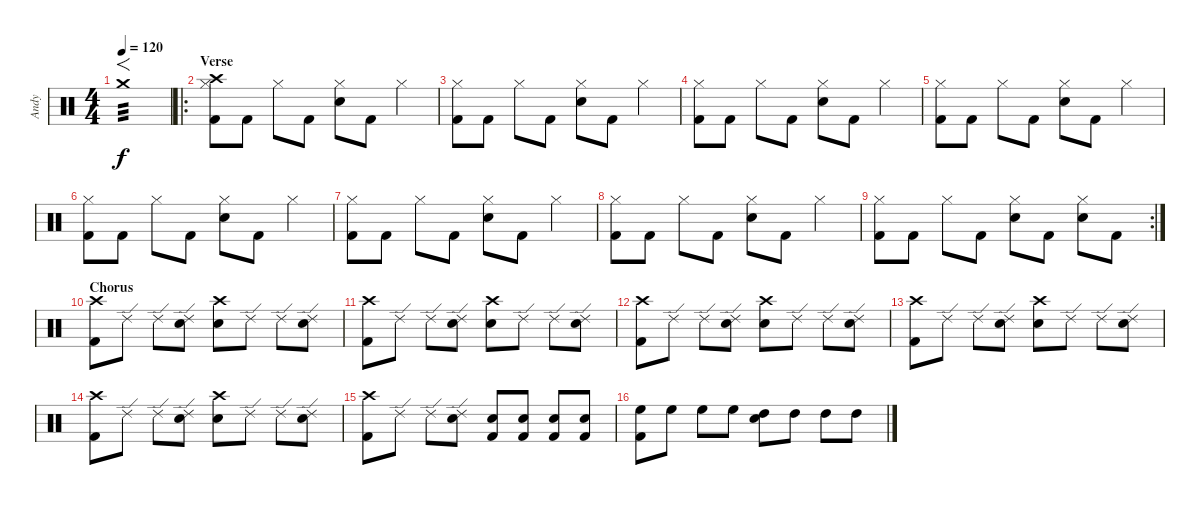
\track ("Andy" "Andy") {instrument percussion}
\staff {score}
\articulation defaults
\ts (4 4)
\tempo 120
\clef neutral
\ks c "Crash medium (hit)".1{f tp 3 dy f}
|
\ro
\section ("" "Verse")
("Crash high (hit)" "Hi-Hat (closed)" "Kick (hit) 2").8 "Kick (hit) 2".8 "Hi-Hat (closed)".8 "Kick (hit) 2".8 ("Hi-Hat (closed)" "Snare (hit) 2").8 "Kick (hit) 2".8 "Hi-Hat (closed)".4 |
("Hi-Hat (closed)" "Kick (hit) 2").8 "Kick (hit) 2".8 "Hi-Hat (closed)".8 "Kick (hit) 2".8 ("Hi-Hat (closed)" "Snare (hit) 2").8 "Kick (hit) 2".8 "Hi-Hat (closed)".4 |
("Hi-Hat (closed)" "Kick (hit) 2").8 "Kick (hit) 2".8 "Hi-Hat (closed)".8 "Kick (hit) 2".8 ("Hi-Hat (closed)" "Snare (hit) 2").8 "Kick (hit) 2".8 "Hi-Hat (closed)".4 |
("Hi-Hat (closed)" "Kick (hit) 2").8 "Kick (hit) 2".8 "Hi-Hat (closed)".8 "Kick (hit) 2".8 ("Hi-Hat (closed)" "Snare (hit) 2").8 "Kick (hit) 2".8 "Hi-Hat (closed)".4 |
("Hi-Hat (closed)" "Kick (hit) 2").8 "Kick (hit) 2".8 "Hi-Hat (closed)".8 "Kick (hit) 2".8 ("Hi-Hat (closed)" "Snare (hit) 2").8 "Kick (hit) 2".8 "Hi-Hat (closed)".4 |
("Hi-Hat (closed)" "Kick (hit) 2").8 "Kick (hit) 2".8 "Hi-Hat (closed)".8 "Kick (hit) 2".8 ("Hi-Hat (closed)" "Snare (hit) 2").8 "Kick (hit) 2".8 "Hi-Hat (closed)".4 |
("Hi-Hat (closed)" "Kick (hit) 2").8 "Kick (hit) 2".8 "Hi-Hat (closed)".8 "Kick (hit) 2".8 ("Hi-Hat (closed)" "Snare (hit) 2").8 "Kick (hit) 2".8 "Hi-Hat (closed)".4 |
\rc 2
("Hi-Hat (closed)" "Kick (hit) 2").8 "Kick (hit) 2".8 "Hi-Hat (closed)".8 "Kick (hit) 2".8 ("Hi-Hat (closed)" "Snare (hit) 2").8 "Kick (hit) 2".8 ("Hi-Hat (closed)" "Snare (hit) 2").8 "Kick (hit) 2".8 |
\section ("" "Chorus")
("Crash high (hit)" "Kick (hit) 2").8 "Ride (edge) 2".8 "Ride (edge) 2".8 ("Ride (edge) 2" "Snare (hit) 2").8 ("Crash high (hit)" "Snare (hit) 2").8 "Ride (edge) 2".8 "Ride (edge) 2".8 ("Ride (edge) 2" "Snare (hit) 2").8 |
("Crash high (hit)" "Kick (hit) 2").8 "Ride (edge) 2".8 "Ride (edge) 2".8 ("Ride (edge) 2" "Snare (hit) 2").8 ("Crash high (hit)" "Snare (hit) 2").8 "Ride (edge) 2".8 "Ride (edge) 2".8 ("Ride (edge) 2" "Snare (hit) 2").8 |
("Crash high (hit)" "Kick (hit) 2").8 "Ride (edge) 2".8 "Ride (edge) 2".8 ("Ride (edge) 2" "Snare (hit) 2").8 ("Crash high (hit)" "Snare (hit) 2").8 "Ride (edge) 2".8 "Ride (edge) 2".8 ("Ride (edge) 2" "Snare (hit) 2").8 |
("Crash high (hit)" "Kick (hit) 2").8 "Ride (edge) 2".8 "Ride (edge) 2".8 ("Ride (edge) 2" "Snare (hit) 2").8 ("Crash high (hit)" "Snare (hit) 2").8 "Ride (edge) 2".8 "Ride (edge) 2".8 ("Ride (edge) 2" "Snare (hit) 2").8 |
("Crash high (hit)" "Kick (hit) 2").8 "Ride (edge) 2".8 "Ride (edge) 2".8 ("Ride (edge) 2" "Snare (hit) 2").8 ("Crash high (hit)" "Snare (hit) 2").8 "Ride (edge) 2".8 "Ride (edge) 2".8 ("Ride (edge) 2" "Snare (hit) 2").8 |
("Crash high (hit)" "Kick (hit) 2").8 "Ride (edge) 2".8 "Ride (edge) 2".8 ("Ride (edge) 2" "Snare (hit) 2").8 ("Snare (hit) 2" "Kick (hit) 2").8 ("Snare (hit) 2" "Kick (hit) 2").8 ("Snare (hit) 2" "Kick (hit) 2").8 ("Snare (hit) 2" "Kick (hit) 2").8 |
("High Floor Tom (hit)" "Kick (hit) 2").8 "High Floor Tom (hit)".8 "High Floor Tom (hit)".8 "High Floor Tom (hit)".8 ("High Tom (hit)" "Snare (hit) 2").8 "High Tom (hit)".8 "High Tom (hit)".8 "High Tom (hit)".8
